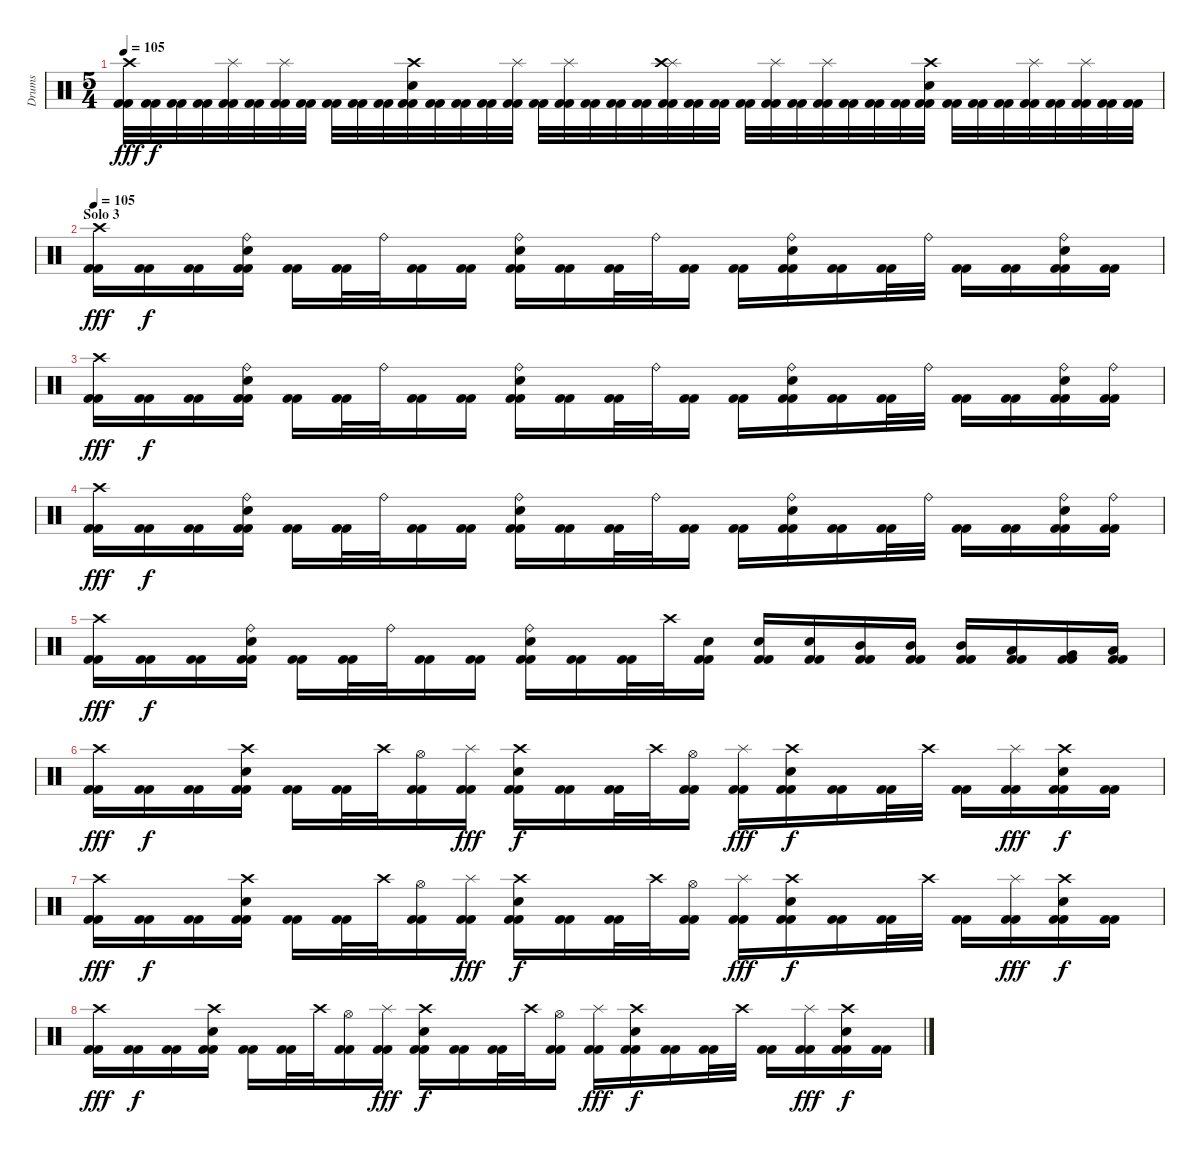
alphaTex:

\track ("Drums" "Drums") {instrument percussion}
\staff {score}
\articulation defaults
\ts (5 4)
\tempo 105
\clef neutral
\ks c
("Crash high (hit)" "Kick (hit) 2" "Kick (hit) 2").32{dy fff} ("Kick (hit) 2" "Kick (hit) 2").32{dy f} ("Kick (hit) 2" "Kick (hit) 2").32 ("Kick (hit) 2" "Kick (hit) 2").32 ("Splash (hit)" "Kick (hit) 2" "Kick (hit) 2").32 ("Kick (hit) 2" "Kick (hit) 2").32 ("Splash (hit)" "Kick (hit) 2" "Kick (hit) 2").32 ("Kick (hit) 2" "Kick (hit) 2").32 ("Kick (hit) 2" "Kick (hit) 2").32 ("Kick (hit) 2" "Kick (hit) 2").32 ("Kick (hit) 2" "Kick (hit) 2").32 ("Crash high (hit)" "Electric Snare (hit)" "Kick (hit) 2" "Kick (hit) 2").32 ("Kick (hit) 2" "Kick (hit) 2").32 ("Kick (hit) 2" "Kick (hit) 2").32 ("Kick (hit) 2" "Kick (hit) 2").32 ("Splash (hit)" "Kick (hit) 2" "Kick (hit) 2").32 ("Kick (hit) 2" "Kick (hit) 2").32 ("Splash (hit)" "Kick (hit) 2" "Kick (hit) 2").32 ("Kick (hit) 2" "Kick (hit) 2").32 ("Kick (hit) 2" "Kick (hit) 2").32 ("Kick (hit) 2" "Kick (hit) 2").32 ("Splash (hit)" "Crash high (hit)" "Kick (hit) 2" "Kick (hit) 2").32 ("Kick (hit) 2" "Kick (hit) 2").32 ("Kick (hit) 2" "Kick (hit) 2").32 ("Kick (hit) 2" "Kick (hit) 2").32 ("Splash (hit)" "Kick (hit) 2" "Kick (hit) 2").32 ("Kick (hit) 2" "Kick (hit) 2").32 ("Splash (hit)" "Kick (hit) 2" "Kick (hit) 2").32 ("Kick (hit) 2" "Kick (hit) 2").32 ("Kick (hit) 2" "Kick (hit) 2").32 ("Kick (hit) 2" "Kick (hit) 2").32 ("Crash high (hit)" "Electric Snare (hit)" "Kick (hit) 2" "Kick (hit) 2").32 ("Kick (hit) 2" "Kick (hit) 2").32 ("Kick (hit) 2" "Kick (hit) 2").32 ("Kick (hit) 2" "Kick (hit) 2").32 ("Splash (hit)" "Kick (hit) 2" "Kick (hit) 2").32 ("Kick (hit) 2" "Kick (hit) 2").32 ("Splash (hit)" "Kick (hit) 2" "Kick (hit) 2").32 ("Kick (hit) 2" "Kick (hit) 2").32 ("Kick (hit) 2" "Kick (hit) 2").32 |
\section ("" "Solo 3")
\tempo 105
("Crash high (hit)" "Kick (hit) 2" "Kick (hit) 2").16{dy fff} ("Kick (hit) 2" "Kick (hit) 2").16{dy f} ("Kick (hit) 2" "Kick (hit) 2").16 ("Ride (bell)" "Electric Snare (hit)" "Kick (hit) 2" "Kick (hit) 2").16 ("Kick (hit) 2" "Kick (hit) 2").16 ("Kick (hit) 2" "Kick (hit) 2").32 "Ride (bell)".32 ("Kick (hit) 2" "Kick (hit) 2").16 ("Kick (hit) 2" "Kick (hit) 2").16 ("Ride (bell)" "Electric Snare (hit)" "Kick (hit) 2" "Kick (hit) 2").16 ("Kick (hit) 2" "Kick (hit) 2").16 ("Kick (hit) 2" "Kick (hit) 2").32 "Ride (bell)".32 ("Kick (hit) 2" "Kick (hit) 2").16 ("Kick (hit) 2" "Kick (hit) 2").16 ("Ride (bell)" "Electric Snare (hit)" "Kick (hit) 2" "Kick (hit) 2").16 ("Kick (hit) 2" "Kick (hit) 2").16 ("Kick (hit) 2" "Kick (hit) 2").32 "Ride (bell)".32 ("Kick (hit) 2" "Kick (hit) 2").16 ("Kick (hit) 2" "Kick (hit) 2").16 ("Ride (bell)" "Electric Snare (hit)" "Kick (hit) 2" "Kick (hit) 2").16 ("Kick (hit) 2" "Kick (hit) 2").16 |
("Crash high (hit)" "Kick (hit) 2" "Kick (hit) 2").16{dy fff} ("Kick (hit) 2" "Kick (hit) 2").16{dy f} ("Kick (hit) 2" "Kick (hit) 2").16 ("Ride (bell)" "Electric Snare (hit)" "Kick (hit) 2" "Kick (hit) 2").16 ("Kick (hit) 2" "Kick (hit) 2").16 ("Kick (hit) 2" "Kick (hit) 2").32 "Ride (bell)".32 ("Kick (hit) 2" "Kick (hit) 2").16 ("Kick (hit) 2" "Kick (hit) 2").16 ("Ride (bell)" "Electric Snare (hit)" "Kick (hit) 2" "Kick (hit) 2").16 ("Kick (hit) 2" "Kick (hit) 2").16 ("Kick (hit) 2" "Kick (hit) 2").32 "Ride (bell)".32 ("Kick (hit) 2" "Kick (hit) 2").16 ("Kick (hit) 2" "Kick (hit) 2").16 ("Ride (bell)" "Electric Snare (hit)" "Kick (hit) 2" "Kick (hit) 2").16 ("Kick (hit) 2" "Kick (hit) 2").16 ("Kick (hit) 2" "Kick (hit) 2").32 "Ride (bell)".32 ("Kick (hit) 2" "Kick (hit) 2").16 ("Kick (hit) 2" "Kick (hit) 2").16 ("Ride (bell)" "Electric Snare (hit)" "Kick (hit) 2" "Kick (hit) 2").16 ("Ride (bell)" "Kick (hit) 2" "Kick (hit) 2").16 |
("Crash high (hit)" "Kick (hit) 2" "Kick (hit) 2").16{dy fff} ("Kick (hit) 2" "Kick (hit) 2").16{dy f} ("Kick (hit) 2" "Kick (hit) 2").16 ("Ride (bell)" "Electric Snare (hit)" "Kick (hit) 2" "Kick (hit) 2").16 ("Kick (hit) 2" "Kick (hit) 2").16 ("Kick (hit) 2" "Kick (hit) 2").32 "Ride (bell)".32 ("Kick (hit) 2" "Kick (hit) 2").16 ("Kick (hit) 2" "Kick (hit) 2").16 ("Ride (bell)" "Electric Snare (hit)" "Kick (hit) 2" "Kick (hit) 2").16 ("Kick (hit) 2" "Kick (hit) 2").16 ("Kick (hit) 2" "Kick (hit) 2").32 "Ride (bell)".32 ("Kick (hit) 2" "Kick (hit) 2").16 ("Kick (hit) 2" "Kick (hit) 2").16 ("Ride (bell)" "Electric Snare (hit)" "Kick (hit) 2" "Kick (hit) 2").16 ("Kick (hit) 2" "Kick (hit) 2").16 ("Kick (hit) 2" "Kick (hit) 2").32 "Ride (bell)".32 ("Kick (hit) 2" "Kick (hit) 2").16 ("Kick (hit) 2" "Kick (hit) 2").16 ("Ride (bell)" "Electric Snare (hit)" "Kick (hit) 2" "Kick (hit) 2").16 ("Ride (bell)" "Kick (hit) 2" "Kick (hit) 2").16 |
("Crash high (hit)" "Kick (hit) 2" "Kick (hit) 2").16{dy fff} ("Kick (hit) 2" "Kick (hit) 2").16{dy f} ("Kick (hit) 2" "Kick (hit) 2").16 ("Ride (bell)" "Electric Snare (hit)" "Kick (hit) 2" "Kick (hit) 2").16 ("Kick (hit) 2" "Kick (hit) 2").16 ("Kick (hit) 2" "Kick (hit) 2").32 "Ride (bell)".32 ("Kick (hit) 2" "Kick (hit) 2").16 ("Kick (hit) 2" "Kick (hit) 2").16 ("Ride (bell)" "Electric Snare (hit)" "Kick (hit) 2" "Kick (hit) 2").16 ("Kick (hit) 2" "Kick (hit) 2").16 ("Kick (hit) 2" "Kick (hit) 2").32 "Crash high (hit)".32 ("Electric Snare (hit)" "Kick (hit) 2" "Kick (hit) 2").16 ("Electric Snare (hit)" "Kick (hit) 2" "Kick (hit) 2").16 ("Electric Snare (hit)" "Kick (hit) 2" "Kick (hit) 2").16 ("Mid Tom (hit)" "Kick (hit) 2" "Kick (hit) 2").16 ("Mid Tom (hit)" "Kick (hit) 2" "Kick (hit) 2").16 ("Mid Tom (hit)" "Kick (hit) 2" "Kick (hit) 2").16 ("Low Tom (hit)" "Kick (hit) 2" "Kick (hit) 2").16 ("Very Low Tom (hit)" "Kick (hit) 2" "Kick (hit) 2").16 ("Low Floor Tom (hit)" "Kick (hit) 2" "Kick (hit) 2").16 |
("Crash high (hit)" "Kick (hit) 2" "Kick (hit) 2").16{dy fff} ("Kick (hit) 2" "Kick (hit) 2").16{dy f} ("Kick (hit) 2" "Kick (hit) 2").16 ("Crash high (hit)" "Electric Snare (hit)" "Kick (hit) 2" "Kick (hit) 2").16 ("Kick (hit) 2" "Kick (hit) 2").16 ("Kick (hit) 2" "Kick (hit) 2").32 "Crash high (hit)".32 ("Hi-Hat (open)" "Kick (hit) 2" "Kick (hit) 2").16 ("Splash (hit)" "Kick (hit) 2" "Kick (hit) 2").16{dy fff} ("Crash high (hit)" "Electric Snare (hit)" "Kick (hit) 2" "Kick (hit) 2").16{dy f} ("Kick (hit) 2" "Kick (hit) 2").16 ("Kick (hit) 2" "Kick (hit) 2").32 "Crash high (hit)".32 ("Hi-Hat (open)" "Kick (hit) 2" "Kick (hit) 2").16 ("Splash (hit)" "Kick (hit) 2" "Kick (hit) 2").16{dy fff} ("Crash high (hit)" "Electric Snare (hit)" "Kick (hit) 2" "Kick (hit) 2").16{dy f} ("Kick (hit) 2" "Kick (hit) 2").16 ("Kick (hit) 2" "Kick (hit) 2").32 "Crash high (hit)".32 ("Kick (hit) 2" "Kick (hit) 2").16 ("Splash (hit)" "Kick (hit) 2" "Kick (hit) 2").16{dy fff} ("Crash high (hit)" "Electric Snare (hit)" "Kick (hit) 2" "Kick (hit) 2").16{dy f} ("Kick (hit) 2" "Kick (hit) 2").16 |
("Crash high (hit)" "Kick (hit) 2" "Kick (hit) 2").16{dy fff} ("Kick (hit) 2" "Kick (hit) 2").16{dy f} ("Kick (hit) 2" "Kick (hit) 2").16 ("Crash high (hit)" "Electric Snare (hit)" "Kick (hit) 2" "Kick (hit) 2").16 ("Kick (hit) 2" "Kick (hit) 2").16 ("Kick (hit) 2" "Kick (hit) 2").32 "Crash high (hit)".32 ("Hi-Hat (open)" "Kick (hit) 2" "Kick (hit) 2").16 ("Splash (hit)" "Kick (hit) 2" "Kick (hit) 2").16{dy fff} ("Crash high (hit)" "Electric Snare (hit)" "Kick (hit) 2" "Kick (hit) 2").16{dy f} ("Kick (hit) 2" "Kick (hit) 2").16 ("Kick (hit) 2" "Kick (hit) 2").32 "Crash high (hit)".32 ("Hi-Hat (open)" "Kick (hit) 2" "Kick (hit) 2").16 ("Splash (hit)" "Kick (hit) 2" "Kick (hit) 2").16{dy fff} ("Crash high (hit)" "Electric Snare (hit)" "Kick (hit) 2" "Kick (hit) 2").16{dy f} ("Kick (hit) 2" "Kick (hit) 2").16 ("Kick (hit) 2" "Kick (hit) 2").32 "Crash high (hit)".32 ("Kick (hit) 2" "Kick (hit) 2").16 ("Splash (hit)" "Kick (hit) 2" "Kick (hit) 2").16{dy fff} ("Crash high (hit)" "Electric Snare (hit)" "Kick (hit) 2" "Kick (hit) 2").16{dy f} ("Kick (hit) 2" "Kick (hit) 2").16 |
("Crash high (hit)" "Kick (hit) 2" "Kick (hit) 2").16{dy fff} ("Kick (hit) 2" "Kick (hit) 2").16{dy f} ("Kick (hit) 2" "Kick (hit) 2").16 ("Crash high (hit)" "Electric Snare (hit)" "Kick (hit) 2" "Kick (hit) 2").16 ("Kick (hit) 2" "Kick (hit) 2").16 ("Kick (hit) 2" "Kick (hit) 2").32 "Crash high (hit)".32 ("Hi-Hat (open)" "Kick (hit) 2" "Kick (hit) 2").16 ("Splash (hit)" "Kick (hit) 2" "Kick (hit) 2").16{dy fff} ("Crash high (hit)" "Electric Snare (hit)" "Kick (hit) 2" "Kick (hit) 2").16{dy f} ("Kick (hit) 2" "Kick (hit) 2").16 ("Kick (hit) 2" "Kick (hit) 2").32 "Crash high (hit)".32 ("Hi-Hat (open)" "Kick (hit) 2" "Kick (hit) 2").16 ("Splash (hit)" "Kick (hit) 2" "Kick (hit) 2").16{dy fff} ("Crash high (hit)" "Electric Snare (hit)" "Kick (hit) 2" "Kick (hit) 2").16{dy f} ("Kick (hit) 2" "Kick (hit) 2").16 ("Kick (hit) 2" "Kick (hit) 2").32 "Crash high (hit)".32 ("Kick (hit) 2" "Kick (hit) 2").16 ("Splash (hit)" "Kick (hit) 2" "Kick (hit) 2").16{dy fff} ("Crash high (hit)" "Electric Snare (hit)" "Kick (hit) 2" "Kick (hit) 2").16{dy f} ("Kick (hit) 2" "Kick (hit) 2").16
